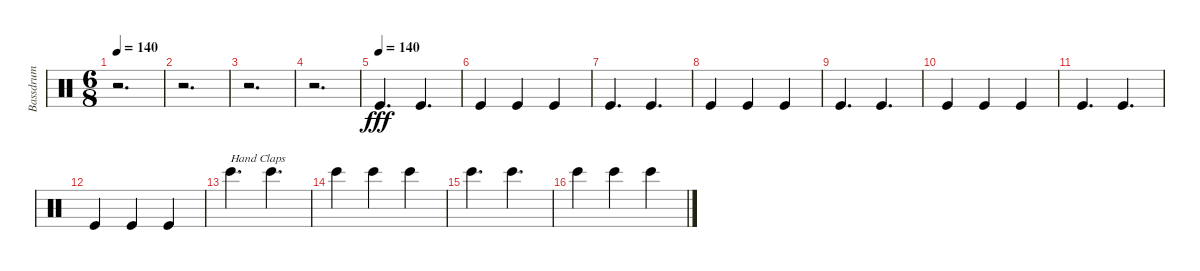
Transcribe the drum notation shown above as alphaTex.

\track ("Bassdrum" "Bassdrum") {instrument percussion}
\staff {score}
\articulation defaults
\ts (6 8)
\tempo 140
\clef neutral
\ks c
r.2{d dy fff} |
r.2{d} |
r.2{d} |
r.2{d} |
\tempo (140)
"Kick (hit)".4{d} "Kick (hit)".4{d} |
"Kick (hit)".4 "Kick (hit)".4 "Kick (hit)".4 |
"Kick (hit)".4{d} "Kick (hit)".4{d} |
"Kick (hit)".4 "Kick (hit)".4 "Kick (hit)".4 |
"Kick (hit)".4{d} "Kick (hit)".4{d} |
"Kick (hit)".4 "Kick (hit)".4 "Kick (hit)".4 |
"Kick (hit)".4{d} "Kick (hit)".4{d} |
"Kick (hit)".4 "Kick (hit)".4 "Kick (hit)".4 |
"Bongo High (hit)".4{d txt "Hand Claps"} "Bongo High (hit)".4{d} |
"Bongo High (hit)".4 "Bongo High (hit)".4 "Bongo High (hit)".4 |
"Bongo High (hit)".4{d} "Bongo High (hit)".4{d} |
"Bongo High (hit)".4 "Bongo High (hit)".4 "Bongo High (hit)".4
